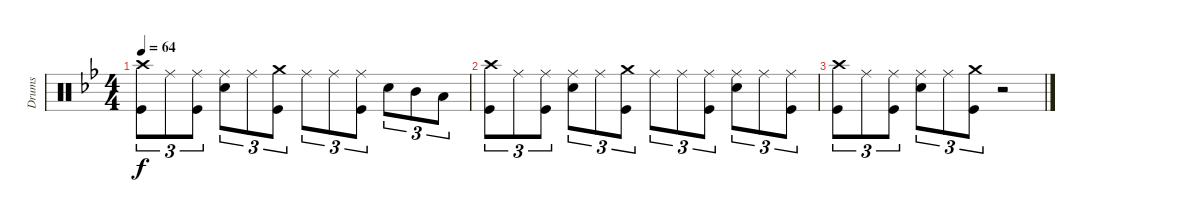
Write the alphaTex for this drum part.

\track ("Drums" "Drums") {instrument percussion}
\staff {score}
\articulation defaults
\ts (4 4)
\tempo 64
\clef neutral
\ks bb
("Crash high (hit)" "Kick (hit)").8{tu (3 2) dy f} "Ride (middle)".8{tu (3 2)} ("Ride (middle)" "Kick (hit)").8{tu (3 2)} ("Ride (middle)" "Snare (hit) 2").8{tu (3 2)} "Ride (middle)".8{tu (3 2)} ("Crash medium (hit)" "Kick (hit)").8{tu (3 2)} "Ride (middle)".8{tu (3 2)} "Ride (middle)".8{tu (3 2)} ("Ride (middle)" "Kick (hit)").8{tu (3 2)} "Snare (hit) 2".8{tu (3 2)} "Mid Tom (hit)".8{tu (3 2)} "Low Tom (hit)".8{tu (3 2)} |
("Crash high (hit)" "Kick (hit)").8{tu (3 2)} "Ride (middle)".8{tu (3 2)} ("Ride (middle)" "Kick (hit)").8{tu (3 2)} ("Ride (middle)" "Snare (hit) 2").8{tu (3 2)} "Ride (middle)".8{tu (3 2)} ("Crash medium (hit)" "Kick (hit)").8{tu (3 2)} "Ride (middle)".8{tu (3 2)} "Ride (middle)".8{tu (3 2)} ("Ride (middle)" "Kick (hit)").8{tu (3 2)} ("Ride (middle)" "Snare (hit) 2").8{tu (3 2)} "Ride (middle)".8{tu (3 2)} ("Ride (middle)" "Kick (hit)").8{tu (3 2)} |
("Crash high (hit)" "Kick (hit)").8{tu (3 2)} "Ride (middle)".8{tu (3 2)} ("Ride (middle)" "Kick (hit)").8{tu (3 2)} ("Ride (middle)" "Snare (hit) 2").8{tu (3 2)} "Ride (middle)".8{tu (3 2)} ("Crash medium (hit)" "Kick (hit)").8{tu (3 2)} r.2
